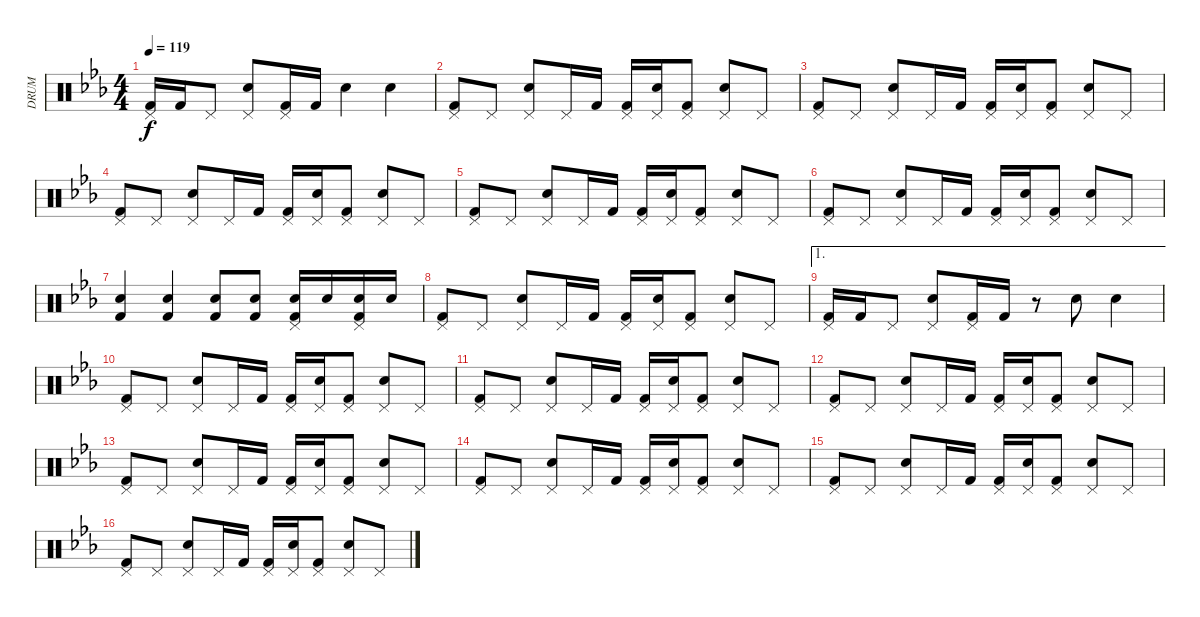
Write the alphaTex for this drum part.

\track ("DRUM" "DRUM") {instrument percussion}
\staff {score}
\articulation defaults
\ts (4 4)
\tempo 119
\clef neutral
\ks eb
("Pedal Hi-Hat (hit)" "Kick (hit) 2").16{dy f} "Kick (hit) 2".16 "Pedal Hi-Hat (hit)".8 ("Pedal Hi-Hat (hit)" "Electric Snare (hit)").8 ("Pedal Hi-Hat (hit)" "Kick (hit) 2").16 "Kick (hit) 2".16 "Electric Snare (hit)".4 "Electric Snare (hit)".4 |
("Pedal Hi-Hat (hit)" "Kick (hit) 2").8 "Pedal Hi-Hat (hit)".8 ("Pedal Hi-Hat (hit)" "Electric Snare (hit)").8 "Pedal Hi-Hat (hit)".16 "Kick (hit) 2".16 ("Pedal Hi-Hat (hit)" "Kick (hit) 2").16 ("Pedal Hi-Hat (hit)" "Electric Snare (hit)").16 ("Pedal Hi-Hat (hit)" "Kick (hit) 2").8 ("Pedal Hi-Hat (hit)" "Electric Snare (hit)").8 "Pedal Hi-Hat (hit)".8 |
("Pedal Hi-Hat (hit)" "Kick (hit) 2").8 "Pedal Hi-Hat (hit)".8 ("Pedal Hi-Hat (hit)" "Electric Snare (hit)").8 "Pedal Hi-Hat (hit)".16 "Kick (hit) 2".16 ("Pedal Hi-Hat (hit)" "Kick (hit) 2").16 ("Pedal Hi-Hat (hit)" "Electric Snare (hit)").16 ("Pedal Hi-Hat (hit)" "Kick (hit) 2").8 ("Pedal Hi-Hat (hit)" "Electric Snare (hit)").8 "Pedal Hi-Hat (hit)".8 |
("Pedal Hi-Hat (hit)" "Kick (hit) 2").8 "Pedal Hi-Hat (hit)".8 ("Pedal Hi-Hat (hit)" "Electric Snare (hit)").8 "Pedal Hi-Hat (hit)".16 "Kick (hit) 2".16 ("Pedal Hi-Hat (hit)" "Kick (hit) 2").16 ("Pedal Hi-Hat (hit)" "Electric Snare (hit)").16 ("Pedal Hi-Hat (hit)" "Kick (hit) 2").8 ("Pedal Hi-Hat (hit)" "Electric Snare (hit)").8 "Pedal Hi-Hat (hit)".8 |
("Pedal Hi-Hat (hit)" "Kick (hit) 2").8 "Pedal Hi-Hat (hit)".8 ("Pedal Hi-Hat (hit)" "Electric Snare (hit)").8 "Pedal Hi-Hat (hit)".16 "Kick (hit) 2".16 ("Pedal Hi-Hat (hit)" "Kick (hit) 2").16 ("Pedal Hi-Hat (hit)" "Electric Snare (hit)").16 ("Pedal Hi-Hat (hit)" "Kick (hit) 2").8 ("Pedal Hi-Hat (hit)" "Electric Snare (hit)").8 "Pedal Hi-Hat (hit)".8 |
("Pedal Hi-Hat (hit)" "Kick (hit) 2").8 "Pedal Hi-Hat (hit)".8 ("Pedal Hi-Hat (hit)" "Electric Snare (hit)").8 "Pedal Hi-Hat (hit)".16 "Kick (hit) 2".16 ("Pedal Hi-Hat (hit)" "Kick (hit) 2").16 ("Pedal Hi-Hat (hit)" "Electric Snare (hit)").16 ("Pedal Hi-Hat (hit)" "Kick (hit) 2").8 ("Pedal Hi-Hat (hit)" "Electric Snare (hit)").8 "Pedal Hi-Hat (hit)".8 |
("Electric Snare (hit)" "Kick (hit) 2").4 ("Electric Snare (hit)" "Kick (hit) 2").4 ("Electric Snare (hit)" "Kick (hit) 2").8 ("Electric Snare (hit)" "Kick (hit) 2").8 ("Pedal Hi-Hat (hit)" "Electric Snare (hit)" "Kick (hit) 2").16 "Electric Snare (hit)".16 ("Pedal Hi-Hat (hit)" "Electric Snare (hit)" "Kick (hit) 2").16 "Electric Snare (hit)".16 |
("Pedal Hi-Hat (hit)" "Kick (hit) 2").8 "Pedal Hi-Hat (hit)".8 ("Pedal Hi-Hat (hit)" "Electric Snare (hit)").8 "Pedal Hi-Hat (hit)".16 "Kick (hit) 2".16 ("Pedal Hi-Hat (hit)" "Kick (hit) 2").16 ("Pedal Hi-Hat (hit)" "Electric Snare (hit)").16 ("Pedal Hi-Hat (hit)" "Kick (hit) 2").8 ("Pedal Hi-Hat (hit)" "Electric Snare (hit)").8 "Pedal Hi-Hat (hit)".8 |
\ae 1
("Pedal Hi-Hat (hit)" "Kick (hit) 2").16 "Kick (hit) 2".16 "Pedal Hi-Hat (hit)".8 ("Pedal Hi-Hat (hit)" "Electric Snare (hit)").8 ("Pedal Hi-Hat (hit)" "Kick (hit) 2").16 "Kick (hit) 2".16 r.8 "Electric Snare (hit)".8 "Electric Snare (hit)".4 |
("Pedal Hi-Hat (hit)" "Kick (hit) 2").8 "Pedal Hi-Hat (hit)".8 ("Pedal Hi-Hat (hit)" "Electric Snare (hit)").8 "Pedal Hi-Hat (hit)".16 "Kick (hit) 2".16 ("Pedal Hi-Hat (hit)" "Kick (hit) 2").16 ("Pedal Hi-Hat (hit)" "Electric Snare (hit)").16 ("Pedal Hi-Hat (hit)" "Kick (hit) 2").8 ("Pedal Hi-Hat (hit)" "Electric Snare (hit)").8 "Pedal Hi-Hat (hit)".8 |
("Pedal Hi-Hat (hit)" "Kick (hit) 2").8 "Pedal Hi-Hat (hit)".8 ("Pedal Hi-Hat (hit)" "Electric Snare (hit)").8 "Pedal Hi-Hat (hit)".16 "Kick (hit) 2".16 ("Pedal Hi-Hat (hit)" "Kick (hit) 2").16 ("Pedal Hi-Hat (hit)" "Electric Snare (hit)").16 ("Pedal Hi-Hat (hit)" "Kick (hit) 2").8 ("Pedal Hi-Hat (hit)" "Electric Snare (hit)").8 "Pedal Hi-Hat (hit)".8 |
("Pedal Hi-Hat (hit)" "Kick (hit) 2").8 "Pedal Hi-Hat (hit)".8 ("Pedal Hi-Hat (hit)" "Electric Snare (hit)").8 "Pedal Hi-Hat (hit)".16 "Kick (hit) 2".16 ("Pedal Hi-Hat (hit)" "Kick (hit) 2").16 ("Pedal Hi-Hat (hit)" "Electric Snare (hit)").16 ("Pedal Hi-Hat (hit)" "Kick (hit) 2").8 ("Pedal Hi-Hat (hit)" "Electric Snare (hit)").8 "Pedal Hi-Hat (hit)".8 |
("Pedal Hi-Hat (hit)" "Kick (hit) 2").8 "Pedal Hi-Hat (hit)".8 ("Pedal Hi-Hat (hit)" "Electric Snare (hit)").8 "Pedal Hi-Hat (hit)".16 "Kick (hit) 2".16 ("Pedal Hi-Hat (hit)" "Kick (hit) 2").16 ("Pedal Hi-Hat (hit)" "Electric Snare (hit)").16 ("Pedal Hi-Hat (hit)" "Kick (hit) 2").8 ("Pedal Hi-Hat (hit)" "Electric Snare (hit)").8 "Pedal Hi-Hat (hit)".8 |
("Pedal Hi-Hat (hit)" "Kick (hit) 2").8 "Pedal Hi-Hat (hit)".8 ("Pedal Hi-Hat (hit)" "Electric Snare (hit)").8 "Pedal Hi-Hat (hit)".16 "Kick (hit) 2".16 ("Pedal Hi-Hat (hit)" "Kick (hit) 2").16 ("Pedal Hi-Hat (hit)" "Electric Snare (hit)").16 ("Pedal Hi-Hat (hit)" "Kick (hit) 2").8 ("Pedal Hi-Hat (hit)" "Electric Snare (hit)").8 "Pedal Hi-Hat (hit)".8 |
("Pedal Hi-Hat (hit)" "Kick (hit) 2").8 "Pedal Hi-Hat (hit)".8 ("Pedal Hi-Hat (hit)" "Electric Snare (hit)").8 "Pedal Hi-Hat (hit)".16 "Kick (hit) 2".16 ("Pedal Hi-Hat (hit)" "Kick (hit) 2").16 ("Pedal Hi-Hat (hit)" "Electric Snare (hit)").16 ("Pedal Hi-Hat (hit)" "Kick (hit) 2").8 ("Pedal Hi-Hat (hit)" "Electric Snare (hit)").8 "Pedal Hi-Hat (hit)".8 |
("Pedal Hi-Hat (hit)" "Kick (hit) 2").8 "Pedal Hi-Hat (hit)".8 ("Pedal Hi-Hat (hit)" "Electric Snare (hit)").8 "Pedal Hi-Hat (hit)".16 "Kick (hit) 2".16 ("Pedal Hi-Hat (hit)" "Kick (hit) 2").16 ("Pedal Hi-Hat (hit)" "Electric Snare (hit)").16 ("Pedal Hi-Hat (hit)" "Kick (hit) 2").8 ("Pedal Hi-Hat (hit)" "Electric Snare (hit)").8 "Pedal Hi-Hat (hit)".8
